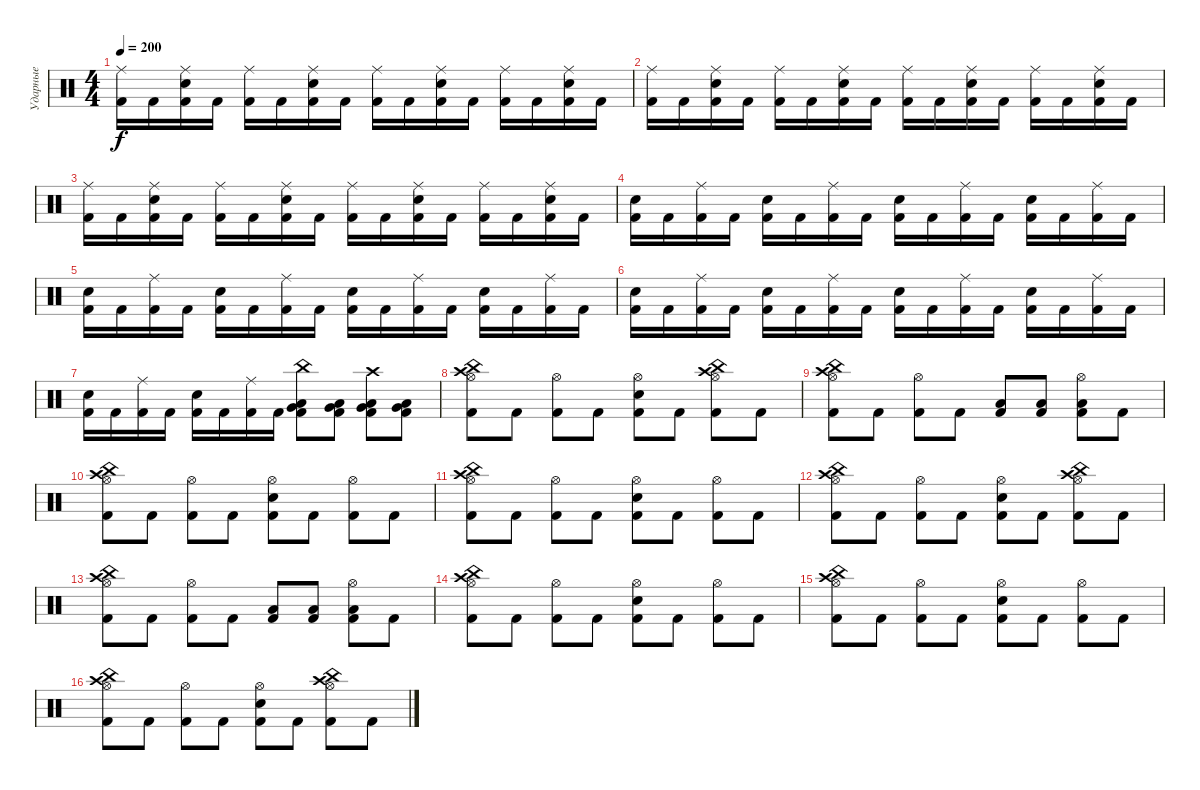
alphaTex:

\track ("Ударные" "Ударные") {instrument percussion}
\staff {score}
\articulation defaults
\ts (4 4)
\tempo 200
\clef neutral
\ks c
("Kick (hit) 2" "Ride (middle)").16{dy f} "Kick (hit) 2".16 ("Kick (hit) 2" "Electric Snare (hit)" "Ride (middle)").16 "Kick (hit) 2".16 ("Kick (hit) 2" "Ride (middle)").16 "Kick (hit) 2".16 ("Kick (hit) 2" "Electric Snare (hit)" "Ride (middle)").16 "Kick (hit) 2".16 ("Kick (hit) 2" "Ride (middle)").16 "Kick (hit) 2".16 ("Kick (hit) 2" "Electric Snare (hit)" "Ride (middle)").16 "Kick (hit) 2".16 ("Kick (hit) 2" "Ride (middle)").16 "Kick (hit) 2".16 ("Kick (hit) 2" "Electric Snare (hit)" "Ride (middle)").16 "Kick (hit) 2".16 |
("Kick (hit) 2" "Ride (middle)").16 "Kick (hit) 2".16 ("Kick (hit) 2" "Electric Snare (hit)" "Ride (middle)").16 "Kick (hit) 2".16 ("Kick (hit) 2" "Ride (middle)").16 "Kick (hit) 2".16 ("Kick (hit) 2" "Electric Snare (hit)" "Ride (middle)").16 "Kick (hit) 2".16 ("Kick (hit) 2" "Ride (middle)").16 "Kick (hit) 2".16 ("Kick (hit) 2" "Electric Snare (hit)" "Ride (middle)").16 "Kick (hit) 2".16 ("Kick (hit) 2" "Ride (middle)").16 "Kick (hit) 2".16 ("Kick (hit) 2" "Electric Snare (hit)" "Ride (middle)").16 "Kick (hit) 2".16 |
("Kick (hit) 2" "Ride (middle)").16 "Kick (hit) 2".16 ("Kick (hit) 2" "Electric Snare (hit)" "Ride (middle)").16 "Kick (hit) 2".16 ("Kick (hit) 2" "Ride (middle)").16 "Kick (hit) 2".16 ("Kick (hit) 2" "Electric Snare (hit)" "Ride (middle)").16 "Kick (hit) 2".16 ("Kick (hit) 2" "Ride (middle)").16 "Kick (hit) 2".16 ("Kick (hit) 2" "Electric Snare (hit)" "Ride (middle)").16 "Kick (hit) 2".16 ("Kick (hit) 2" "Ride (middle)").16 "Kick (hit) 2".16 ("Kick (hit) 2" "Electric Snare (hit)" "Ride (middle)").16 "Kick (hit) 2".16 |
("Kick (hit) 2" "Electric Snare (hit)").16 "Kick (hit) 2".16 ("Kick (hit) 2" "Ride (middle)").16 "Kick (hit) 2".16 ("Kick (hit) 2" "Electric Snare (hit)").16 "Kick (hit) 2".16 ("Kick (hit) 2" "Ride (middle)").16 "Kick (hit) 2".16 ("Kick (hit) 2" "Electric Snare (hit)").16 "Kick (hit) 2".16 ("Kick (hit) 2" "Ride (middle)").16 "Kick (hit) 2".16 ("Kick (hit) 2" "Electric Snare (hit)").16 "Kick (hit) 2".16 ("Kick (hit) 2" "Ride (middle)").16 "Kick (hit) 2".16 |
("Kick (hit) 2" "Electric Snare (hit)").16 "Kick (hit) 2".16 ("Kick (hit) 2" "Ride (middle)").16 "Kick (hit) 2".16 ("Kick (hit) 2" "Electric Snare (hit)").16 "Kick (hit) 2".16 ("Kick (hit) 2" "Ride (middle)").16 "Kick (hit) 2".16 ("Kick (hit) 2" "Electric Snare (hit)").16 "Kick (hit) 2".16 ("Kick (hit) 2" "Ride (middle)").16 "Kick (hit) 2".16 ("Kick (hit) 2" "Electric Snare (hit)").16 "Kick (hit) 2".16 ("Kick (hit) 2" "Ride (middle)").16 "Kick (hit) 2".16 |
("Kick (hit) 2" "Electric Snare (hit)").16 "Kick (hit) 2".16 ("Kick (hit) 2" "Ride (middle)").16 "Kick (hit) 2".16 ("Kick (hit) 2" "Electric Snare (hit)").16 "Kick (hit) 2".16 ("Kick (hit) 2" "Ride (middle)").16 "Kick (hit) 2".16 ("Kick (hit) 2" "Electric Snare (hit)").16 "Kick (hit) 2".16 ("Kick (hit) 2" "Ride (middle)").16 "Kick (hit) 2".16 ("Kick (hit) 2" "Electric Snare (hit)").16 "Kick (hit) 2".16 ("Kick (hit) 2" "Ride (middle)").16 "Kick (hit) 2".16 |
("Kick (hit) 2" "Electric Snare (hit)").16 "Kick (hit) 2".16 ("Kick (hit) 2" "Ride (middle)").16 "Kick (hit) 2".16 ("Kick (hit) 2" "Electric Snare (hit)").16 "Kick (hit) 2".16 ("Kick (hit) 2" "Ride (middle)").16 "Kick (hit) 2".16 ("Kick (hit) 2" "Low Floor Tom (hit)" "Very Low Tom (hit)" "China (hit)").8 ("Kick (hit) 2" "Low Floor Tom (hit)" "Very Low Tom (hit)").8 ("Kick (hit) 2" "Low Floor Tom (hit)" "Very Low Tom (hit)" "Crash high (hit)").8 ("Kick (hit) 2" "Low Floor Tom (hit)" "Very Low Tom (hit)").8 |
("Kick (hit) 2" "Hi-Hat (open)" "Crash high (hit)" "China (hit)").8 "Kick (hit) 2".8 ("Kick (hit) 2" "Hi-Hat (open)").8 "Kick (hit) 2".8 ("Kick (hit) 2" "Electric Snare (hit)" "Hi-Hat (open)").8 "Kick (hit) 2".8 ("Kick (hit) 2" "Hi-Hat (open)" "Crash high (hit)" "China (hit)").8 "Kick (hit) 2".8 |
("Kick (hit) 2" "Hi-Hat (open)" "China (hit)" "Crash high (hit)").8 "Kick (hit) 2".8 ("Kick (hit) 2" "Hi-Hat (open)").8 "Kick (hit) 2".8 ("Kick (hit) 2" "Low Floor Tom (hit)").8 ("Kick (hit) 2" "Low Floor Tom (hit)").8 ("Kick (hit) 2" "Low Floor Tom (hit)" "Hi-Hat (open)").8 "Kick (hit) 2".8 |
("Kick (hit) 2" "Hi-Hat (open)" "China (hit)" "Crash high (hit)").8 "Kick (hit) 2".8 ("Kick (hit) 2" "Hi-Hat (open)").8 "Kick (hit) 2".8 ("Kick (hit) 2" "Electric Snare (hit)" "Hi-Hat (open)").8 "Kick (hit) 2".8 ("Kick (hit) 2" "Hi-Hat (open)").8 "Kick (hit) 2".8 |
("Kick (hit) 2" "Hi-Hat (open)" "Crash high (hit)" "China (hit)").8 "Kick (hit) 2".8 ("Kick (hit) 2" "Hi-Hat (open)").8 "Kick (hit) 2".8 ("Kick (hit) 2" "Electric Snare (hit)" "Hi-Hat (open)").8 "Kick (hit) 2".8 ("Kick (hit) 2" "Hi-Hat (open)").8 "Kick (hit) 2".8 |
("Kick (hit) 2" "Hi-Hat (open)" "Crash high (hit)" "China (hit)").8 "Kick (hit) 2".8 ("Kick (hit) 2" "Hi-Hat (open)").8 "Kick (hit) 2".8 ("Kick (hit) 2" "Electric Snare (hit)" "Hi-Hat (open)").8 "Kick (hit) 2".8 ("Kick (hit) 2" "Hi-Hat (open)" "Crash high (hit)" "China (hit)").8 "Kick (hit) 2".8 |
("Kick (hit) 2" "Hi-Hat (open)" "China (hit)" "Crash high (hit)").8 "Kick (hit) 2".8 ("Kick (hit) 2" "Hi-Hat (open)").8 "Kick (hit) 2".8 ("Kick (hit) 2" "Low Floor Tom (hit)").8 ("Kick (hit) 2" "Low Floor Tom (hit)").8 ("Kick (hit) 2" "Low Floor Tom (hit)" "Hi-Hat (open)").8 "Kick (hit) 2".8 |
("Kick (hit) 2" "Hi-Hat (open)" "China (hit)" "Crash high (hit)").8 "Kick (hit) 2".8 ("Kick (hit) 2" "Hi-Hat (open)").8 "Kick (hit) 2".8 ("Kick (hit) 2" "Electric Snare (hit)" "Hi-Hat (open)").8 "Kick (hit) 2".8 ("Kick (hit) 2" "Hi-Hat (open)").8 "Kick (hit) 2".8 |
("Kick (hit) 2" "Hi-Hat (open)" "Crash high (hit)" "China (hit)").8 "Kick (hit) 2".8 ("Kick (hit) 2" "Hi-Hat (open)").8 "Kick (hit) 2".8 ("Kick (hit) 2" "Electric Snare (hit)" "Hi-Hat (open)").8 "Kick (hit) 2".8 ("Kick (hit) 2" "Hi-Hat (open)").8 "Kick (hit) 2".8 |
("Kick (hit) 2" "Hi-Hat (open)" "Crash high (hit)" "China (hit)").8 "Kick (hit) 2".8 ("Kick (hit) 2" "Hi-Hat (open)").8 "Kick (hit) 2".8 ("Kick (hit) 2" "Electric Snare (hit)" "Hi-Hat (open)").8 "Kick (hit) 2".8 ("Kick (hit) 2" "Hi-Hat (open)" "Crash high (hit)" "China (hit)").8 "Kick (hit) 2".8
